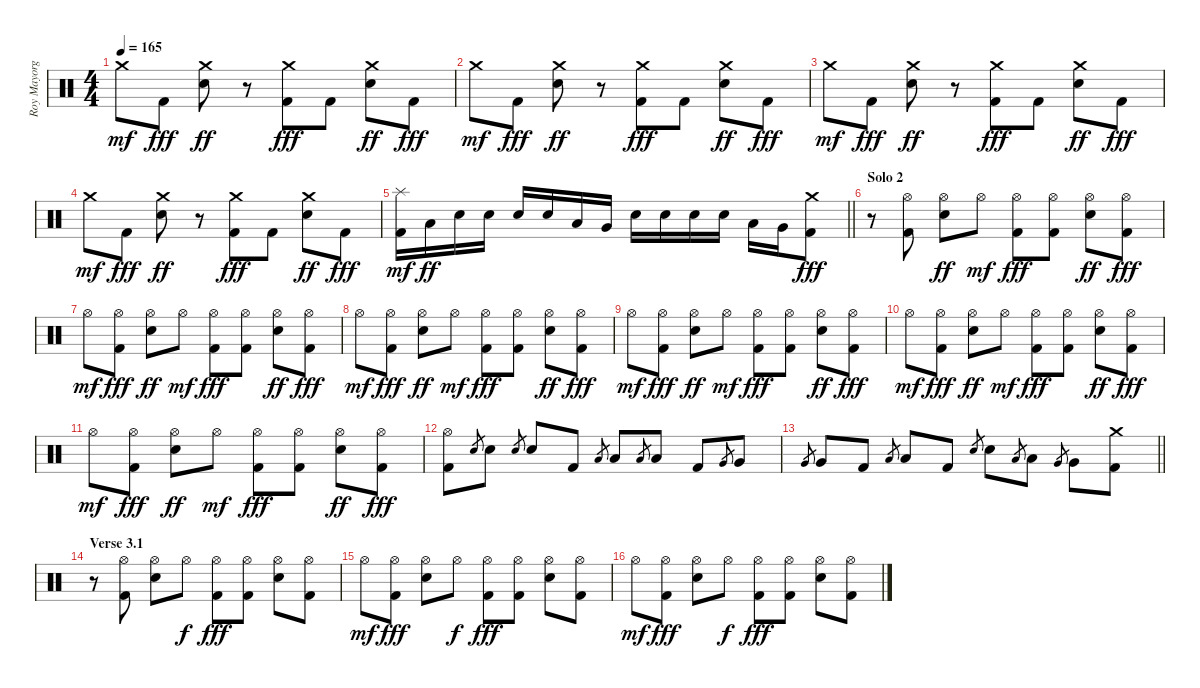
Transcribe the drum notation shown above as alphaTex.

\track ("Roy Mayorga" "Roy Mayorg") {instrument percussion}
\staff {score}
\articulation defaults
\ts (4 4)
\tempo 165
\clef neutral
\ks c "Crash medium (hit)".8{dy mf} "Kick (hit) 2".8{dy fff}
("Crash medium (hit)" "Electric Snare (hit)").8{dy ff} r.8 ("Crash medium (hit)" "Kick (hit) 2").8{dy fff} "Kick (hit) 2".8 ("Crash medium (hit)" "Electric Snare (hit)").8{dy ff} "Kick (hit) 2".8{dy fff} |
"Crash medium (hit)".8{dy mf} "Kick (hit) 2".8{dy fff} ("Crash medium (hit)" "Electric Snare (hit)").8{dy ff} r.8 ("Crash medium (hit)" "Kick (hit) 2").8{dy fff} "Kick (hit) 2".8 ("Crash medium (hit)" "Electric Snare (hit)").8{dy ff} "Kick (hit) 2".8{dy fff} |
"Crash medium (hit)".8{dy mf} "Kick (hit) 2".8{dy fff} ("Crash medium (hit)" "Electric Snare (hit)").8{dy ff} r.8 ("Crash medium (hit)" "Kick (hit) 2").8{dy fff} "Kick (hit) 2".8 ("Crash medium (hit)" "Electric Snare (hit)").8{dy ff} "Kick (hit) 2".8{dy fff} |
"Crash medium (hit)".8{dy mf} "Kick (hit) 2".8{dy fff} ("Crash medium (hit)" "Electric Snare (hit)").8{dy ff} r.8 ("Crash medium (hit)" "Kick (hit) 2").8{dy fff} "Kick (hit) 2".8 ("Crash medium (hit)" "Electric Snare (hit)").8{dy ff} "Kick (hit) 2".8{dy fff} |
\barLineRight lightlight
("Splash (hit)" "Kick (hit) 2").16{dy mf} "Low Tom (hit)".16{dy ff} "Electric Snare (hit)".16 "Electric Snare (hit)".16 "Electric Snare (hit)".16 "Electric Snare (hit)".16 "Low Tom (hit)".16 "Very Low Tom (hit)".16 "Electric Snare (hit)".16 "Electric Snare (hit)".16 "Electric Snare (hit)".16 "Electric Snare (hit)".16 "Low Tom (hit)".16 "Very Low Tom (hit)".16 ("Crash medium (hit)" "Kick (hit) 2").8{dy fff} |
\section ("" "Solo 2")
r.8 ("Hi-Hat (open)" "Kick (hit) 2").8 ("Hi-Hat (open)" "Electric Snare (hit)").8{dy ff} "Hi-Hat (open)".8{dy mf} ("Hi-Hat (open)" "Kick (hit) 2").8{dy fff} ("Hi-Hat (open)" "Kick (hit) 2").8 ("Hi-Hat (open)" "Electric Snare (hit)").8{dy ff} ("Hi-Hat (open)" "Kick (hit) 2").8{dy fff} |
"Hi-Hat (open)".8{dy mf} ("Hi-Hat (open)" "Kick (hit) 2").8{dy fff} ("Hi-Hat (open)" "Electric Snare (hit)").8{dy ff} "Hi-Hat (open)".8{dy mf} ("Hi-Hat (open)" "Kick (hit) 2").8{dy fff} ("Hi-Hat (open)" "Kick (hit) 2").8 ("Hi-Hat (open)" "Electric Snare (hit)").8{dy ff} ("Hi-Hat (open)" "Kick (hit) 2").8{dy fff} |
"Hi-Hat (open)".8{dy mf} ("Hi-Hat (open)" "Kick (hit) 2").8{dy fff} ("Hi-Hat (open)" "Electric Snare (hit)").8{dy ff} "Hi-Hat (open)".8{dy mf} ("Hi-Hat (open)" "Kick (hit) 2").8{dy fff} ("Hi-Hat (open)" "Kick (hit) 2").8 ("Hi-Hat (open)" "Electric Snare (hit)").8{dy ff} ("Hi-Hat (open)" "Kick (hit) 2").8{dy fff} |
"Hi-Hat (open)".8{dy mf} ("Hi-Hat (open)" "Kick (hit) 2").8{dy fff} ("Hi-Hat (open)" "Electric Snare (hit)").8{dy ff} "Hi-Hat (open)".8{dy mf} ("Hi-Hat (open)" "Kick (hit) 2").8{dy fff} ("Hi-Hat (open)" "Kick (hit) 2").8 ("Hi-Hat (open)" "Electric Snare (hit)").8{dy ff} ("Hi-Hat (open)" "Kick (hit) 2").8{dy fff} |
"Hi-Hat (open)".8{dy mf} ("Hi-Hat (open)" "Kick (hit) 2").8{dy fff} ("Hi-Hat (open)" "Electric Snare (hit)").8{dy ff} "Hi-Hat (open)".8{dy mf} ("Hi-Hat (open)" "Kick (hit) 2").8{dy fff} ("Hi-Hat (open)" "Kick (hit) 2").8 ("Hi-Hat (open)" "Electric Snare (hit)").8{dy ff} ("Hi-Hat (open)" "Kick (hit) 2").8{dy fff} |
"Hi-Hat (open)".8{dy mf} ("Hi-Hat (open)" "Kick (hit) 2").8{dy fff} ("Hi-Hat (open)" "Electric Snare (hit)").8{dy ff} "Hi-Hat (open)".8{dy mf} ("Hi-Hat (open)" "Kick (hit) 2").8{dy fff} ("Hi-Hat (open)" "Kick (hit) 2").8 ("Hi-Hat (open)" "Electric Snare (hit)").8{dy ff} ("Hi-Hat (open)" "Kick (hit) 2").8{dy fff} |
("Hi-Hat (open)" "Kick (hit) 2").8 "Electric Snare (hit)".8{gr} "Electric Snare (hit)".8 "Electric Snare (hit)".8{gr} "Electric Snare (hit)".8 "Kick (hit) 2".8 "Low Tom (hit)".8{gr} "Low Tom (hit)".8 "Low Tom (hit)".8{gr} "Low Tom (hit)".8 "Kick (hit) 2".8 "Very Low Tom (hit)".8{gr} "Very Low Tom (hit)".8 |
\barLineRight lightlight "Very Low Tom (hit)".8{gr} "Very Low Tom (hit)".8 "Kick (hit) 2".8 "Low Floor Tom (hit)".8{gr} "Low Floor Tom (hit)".8 "Kick (hit) 2".8 "Electric Snare (hit)".8{gr} "Electric Snare (hit)".8 "Low Tom (hit)".8{gr} "Low Tom (hit)".8 "Very Low Tom (hit)".8{gr} "Very Low Tom (hit)".8
("Crash medium (hit)" "Kick (hit) 2").8 |
\section ("" "Verse 3.1")
r.8 ("Hi-Hat (open)" "Kick (hit) 2").8 ("Hi-Hat (open)" "Electric Snare (hit)").8 "Hi-Hat (open)".8{dy f} ("Hi-Hat (open)" "Kick (hit) 2").8{dy fff} ("Hi-Hat (open)" "Kick (hit) 2").8 ("Hi-Hat (open)" "Electric Snare (hit)").8 ("Hi-Hat (open)" "Kick (hit) 2").8 |
"Hi-Hat (open)".8{dy mf} ("Hi-Hat (open)" "Kick (hit) 2").8{dy fff} ("Hi-Hat (open)" "Electric Snare (hit)").8 "Hi-Hat (open)".8{dy f} ("Hi-Hat (open)" "Kick (hit) 2").8{dy fff} ("Hi-Hat (open)" "Kick (hit) 2").8 ("Hi-Hat (open)" "Electric Snare (hit)").8 ("Hi-Hat (open)" "Kick (hit) 2").8 |
"Hi-Hat (open)".8{dy mf} ("Hi-Hat (open)" "Kick (hit) 2").8{dy fff} ("Hi-Hat (open)" "Electric Snare (hit)").8 "Hi-Hat (open)".8{dy f} ("Hi-Hat (open)" "Kick (hit) 2").8{dy fff} ("Hi-Hat (open)" "Kick (hit) 2").8 ("Hi-Hat (open)" "Electric Snare (hit)").8 ("Hi-Hat (open)" "Kick (hit) 2").8
